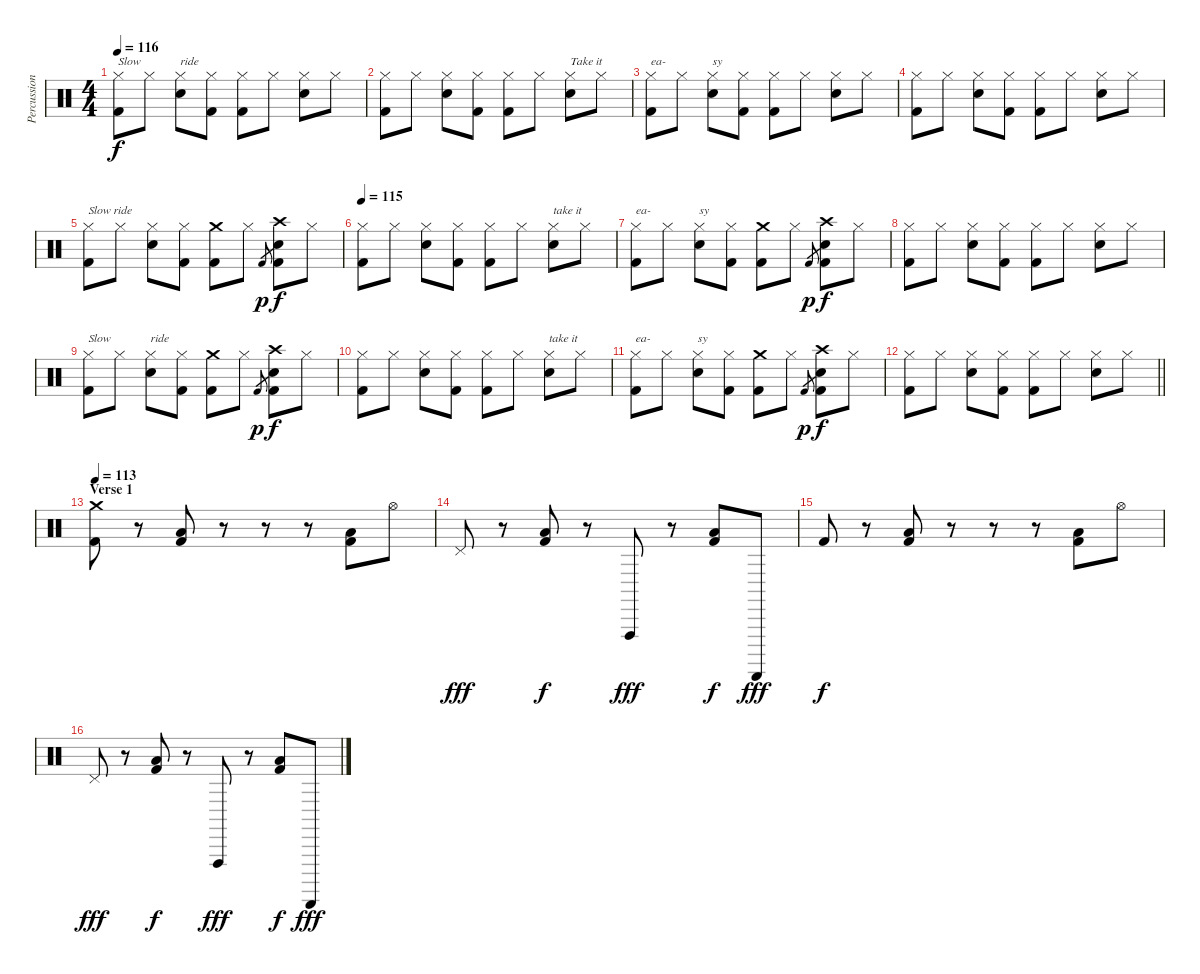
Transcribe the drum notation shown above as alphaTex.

\track ("Percussion" "Percussion") {instrument percussion}
\staff {score}
\articulation defaults
\ts (4 4)
\tempo 116
\clef neutral
\ks c
("Hi-Hat (closed)" "Kick (hit) 2").8{txt "Slow " dy f} "Hi-Hat (closed)".8 ("Hi-Hat (closed)" "Snare (hit) 2").8{txt "ride"} ("Hi-Hat (closed)" "Kick (hit) 2").8 ("Hi-Hat (closed)" "Kick (hit) 2").8 "Hi-Hat (closed)".8 ("Hi-Hat (closed)" "Snare (hit) 2").8 "Hi-Hat (closed)".8 |
("Hi-Hat (closed)" "Kick (hit) 2").8 "Hi-Hat (closed)".8 ("Hi-Hat (closed)" "Snare (hit) 2").8 ("Hi-Hat (closed)" "Kick (hit) 2").8 ("Hi-Hat (closed)" "Kick (hit) 2").8 "Hi-Hat (closed)".8 ("Hi-Hat (closed)" "Snare (hit) 2").8{txt "Take it"} "Hi-Hat (closed)".8 |
("Hi-Hat (closed)" "Kick (hit) 2").8{txt "ea-"} "Hi-Hat (closed)".8 ("Hi-Hat (closed)" "Snare (hit) 2").8{txt "sy"} ("Hi-Hat (closed)" "Kick (hit) 2").8 ("Hi-Hat (closed)" "Kick (hit) 2").8 "Hi-Hat (closed)".8 ("Hi-Hat (closed)" "Snare (hit) 2").8 "Hi-Hat (closed)".8 |
("Hi-Hat (closed)" "Kick (hit) 2").8 "Hi-Hat (closed)".8 ("Hi-Hat (closed)" "Snare (hit) 2").8 ("Hi-Hat (closed)" "Kick (hit) 2").8 ("Hi-Hat (closed)" "Kick (hit) 2").8 "Hi-Hat (closed)".8 ("Hi-Hat (closed)" "Snare (hit) 2").8 "Hi-Hat (closed)".8 |
("Hi-Hat (closed)" "Kick (hit) 2").8{txt "Slow ride"} "Hi-Hat (closed)".8 ("Hi-Hat (closed)" "Snare (hit) 2").8 ("Hi-Hat (closed)" "Kick (hit) 2").8 ("Crash medium (hit)" "Kick (hit) 2").8 "Hi-Hat (closed)".8 "Kick (hit) 2".8{gr dy p} ("Crash high (hit)" "Snare (hit) 2" "Kick (hit) 2").8{dy f} "Hi-Hat (closed)".8 |
\tempo 115
("Hi-Hat (closed)" "Kick (hit) 2").8 "Hi-Hat (closed)".8 ("Hi-Hat (closed)" "Snare (hit) 2").8 ("Hi-Hat (closed)" "Kick (hit) 2").8 ("Hi-Hat (closed)" "Kick (hit) 2").8 "Hi-Hat (closed)".8 ("Hi-Hat (closed)" "Snare (hit) 2").8{txt "take it"} "Hi-Hat (closed)".8 |
("Hi-Hat (closed)" "Kick (hit) 2").8{txt "ea-"} "Hi-Hat (closed)".8 ("Hi-Hat (closed)" "Snare (hit) 2").8{txt "sy"} ("Hi-Hat (closed)" "Kick (hit) 2").8 ("Crash medium (hit)" "Kick (hit) 2").8 "Hi-Hat (closed)".8 "Kick (hit) 2".8{gr dy p} ("Crash high (hit)" "Snare (hit) 2" "Kick (hit) 2").8{dy f} "Hi-Hat (closed)".8 |
("Hi-Hat (closed)" "Kick (hit) 2").8 "Hi-Hat (closed)".8 ("Hi-Hat (closed)" "Snare (hit) 2").8 ("Hi-Hat (closed)" "Kick (hit) 2").8 ("Hi-Hat (closed)" "Kick (hit) 2").8 "Hi-Hat (closed)".8 ("Hi-Hat (closed)" "Snare (hit) 2").8 "Hi-Hat (closed)".8 |
("Hi-Hat (closed)" "Kick (hit) 2").8{txt "Slow"} "Hi-Hat (closed)".8 ("Hi-Hat (closed)" "Snare (hit) 2").8{txt "ride"} ("Hi-Hat (closed)" "Kick (hit) 2").8 ("Crash medium (hit)" "Kick (hit) 2").8 "Hi-Hat (closed)".8 "Kick (hit) 2".8{gr dy p} ("Crash high (hit)" "Snare (hit) 2" "Kick (hit) 2").8{dy f} "Hi-Hat (closed)".8 |
("Hi-Hat (closed)" "Kick (hit) 2").8 "Hi-Hat (closed)".8 ("Hi-Hat (closed)" "Snare (hit) 2").8 ("Hi-Hat (closed)" "Kick (hit) 2").8 ("Hi-Hat (closed)" "Kick (hit) 2").8 "Hi-Hat (closed)".8 ("Hi-Hat (closed)" "Snare (hit) 2").8{txt "take it"} "Hi-Hat (closed)".8 |
("Hi-Hat (closed)" "Kick (hit) 2").8{txt "ea-"} "Hi-Hat (closed)".8 ("Hi-Hat (closed)" "Snare (hit) 2").8{txt "sy"} ("Hi-Hat (closed)" "Kick (hit) 2").8 ("Crash medium (hit)" "Kick (hit) 2").8 "Hi-Hat (closed)".8 "Kick (hit) 2".8{gr dy p} ("Crash high (hit)" "Snare (hit) 2" "Kick (hit) 2").8{dy f} "Hi-Hat (closed)".8 |
\barLineRight lightlight
("Hi-Hat (closed)" "Kick (hit) 2").8 "Hi-Hat (closed)".8 ("Hi-Hat (closed)" "Snare (hit) 2").8 ("Hi-Hat (closed)" "Kick (hit) 2").8 ("Hi-Hat (closed)" "Kick (hit) 2").8 "Hi-Hat (closed)".8 ("Hi-Hat (closed)" "Snare (hit) 2").8 "Hi-Hat (closed)".8 |
\section ("" "Verse 1")
\tempo 113
("Crash medium (hit)" "Kick (hit) 2").8 r.8 ("Low Floor Tom (hit)" "Kick (hit) 2").8 r.8 r.8 r.8 ("Low Floor Tom (hit)" "Kick (hit) 2").8 "Hi-Hat (open)".8 |
"Pedal Hi-Hat (hit)".8{dy fff} r.8 ("Low Floor Tom (hit)" "Kick (hit) 2").8{dy f} r.8 "Vibraslap (hit)".8{dy fff} r.8 ("Low Floor Tom (hit)" "Kick (hit) 2").8{dy f} "Guiro (scrap-return)".8{dy fff} |
"Kick (hit) 2".8{dy f} r.8 ("Low Floor Tom (hit)" "Kick (hit) 2").8 r.8 r.8 r.8 ("Low Floor Tom (hit)" "Kick (hit) 2").8 "Hi-Hat (open)".8 |
"Pedal Hi-Hat (hit)".8{dy fff} r.8 ("Low Floor Tom (hit)" "Kick (hit) 2").8{dy f} r.8 "Vibraslap (hit)".8{dy fff} r.8 ("Low Floor Tom (hit)" "Kick (hit) 2").8{dy f} "Guiro (scrap-return)".8{dy fff}
